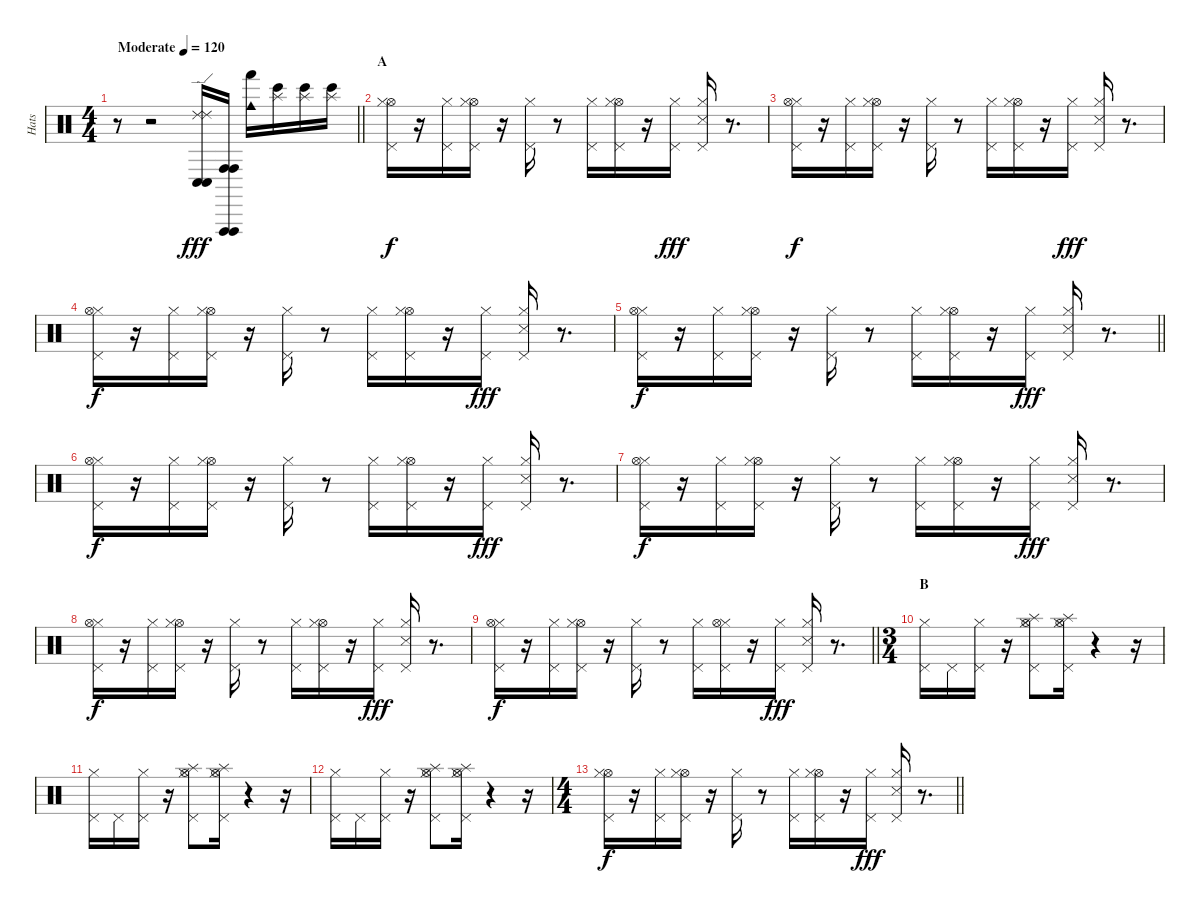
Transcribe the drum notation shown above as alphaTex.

\track ("Hats" "Hats") {solo instrument percussion}
\staff {score}
\articulation defaults
\ts (4 4)
\tempo (120 "Moderate")
\clef neutral
\barLineRight lightlight
\ks c
r.8{dy fff} r.2 ("Ride (edge) 2" "Conga low (hit)" "Ride (edge) 2" "Conga low (hit)").16 ("Conga high (hit)" "Vibraslap (hit)" "Conga high (hit)" "Vibraslap (hit)").16 ("Hand (hit)" "Cowbell medium (hit)").16 ("Splash (hit)" "Bongo High (hit)").16 ("Splash (hit)" "Bongo High (hit)").16 ("Bongo High (hit)" "Splash (hit)").16 |
\section ("" "A")
("Hi-Hat (open)" "Pedal Hi-Hat (hit)" "Hi-Hat (closed)").16{dy f} r.16 ("Hi-Hat (closed)" "Pedal Hi-Hat (hit)").16 ("Hi-Hat (open)" "Hi-Hat (closed)" "Pedal Hi-Hat (hit)").16 r.16 ("Pedal Hi-Hat (hit)" "Hi-Hat (closed)").16 r.8 ("Hi-Hat (closed)" "Pedal Hi-Hat (hit)").16 ("Hi-Hat (open)" "Pedal Hi-Hat (hit)" "Hi-Hat (closed)").16 r.16 ("Hi-Hat (closed)" "Pedal Hi-Hat (hit)").16{dy fff} ("Pedal Hi-Hat (hit)" "Hi-Hat (closed)" "Snare (side stick) 3").16 r.8{d} |
("Hi-Hat (closed)" "Pedal Hi-Hat (hit)" "Hi-Hat (open)").16{dy f} r.16 ("Hi-Hat (closed)" "Pedal Hi-Hat (hit)").16 ("Hi-Hat (open)" "Hi-Hat (closed)" "Pedal Hi-Hat (hit)").16 r.16 ("Pedal Hi-Hat (hit)" "Hi-Hat (closed)").16 r.8 ("Hi-Hat (closed)" "Pedal Hi-Hat (hit)").16 ("Hi-Hat (open)" "Pedal Hi-Hat (hit)" "Hi-Hat (closed)").16 r.16 ("Hi-Hat (closed)" "Pedal Hi-Hat (hit)").16{dy fff} ("Pedal Hi-Hat (hit)" "Hi-Hat (closed)" "Snare (side stick) 3").16 r.8{d} |
("Hi-Hat (closed)" "Pedal Hi-Hat (hit)" "Hi-Hat (open)").16{dy f} r.16 ("Hi-Hat (closed)" "Pedal Hi-Hat (hit)").16 ("Hi-Hat (open)" "Hi-Hat (closed)" "Pedal Hi-Hat (hit)").16 r.16 ("Pedal Hi-Hat (hit)" "Hi-Hat (closed)").16 r.8 ("Hi-Hat (closed)" "Pedal Hi-Hat (hit)").16 ("Hi-Hat (open)" "Pedal Hi-Hat (hit)" "Hi-Hat (closed)").16 r.16 ("Hi-Hat (closed)" "Pedal Hi-Hat (hit)").16{dy fff} ("Pedal Hi-Hat (hit)" "Hi-Hat (closed)" "Snare (side stick) 3").16 r.8{d} |
\barLineRight lightlight
("Hi-Hat (closed)" "Pedal Hi-Hat (hit)" "Hi-Hat (open)").16{dy f} r.16 ("Hi-Hat (closed)" "Pedal Hi-Hat (hit)").16 ("Hi-Hat (open)" "Hi-Hat (closed)" "Pedal Hi-Hat (hit)").16 r.16 ("Hi-Hat (closed)" "Pedal Hi-Hat (hit)").16 r.8 ("Hi-Hat (closed)" "Pedal Hi-Hat (hit)").16 ("Hi-Hat (open)" "Pedal Hi-Hat (hit)" "Hi-Hat (closed)").16 r.16 ("Hi-Hat (closed)" "Pedal Hi-Hat (hit)").16{dy fff} ("Pedal Hi-Hat (hit)" "Hi-Hat (closed)" "Snare (side stick) 3").16 r.8{d} |
("Hi-Hat (closed)" "Pedal Hi-Hat (hit)" "Hi-Hat (open)").16{dy f} r.16 ("Hi-Hat (closed)" "Pedal Hi-Hat (hit)").16 ("Hi-Hat (open)" "Hi-Hat (closed)" "Pedal Hi-Hat (hit)").16 r.16 ("Hi-Hat (closed)" "Pedal Hi-Hat (hit)").16 r.8 ("Hi-Hat (closed)" "Pedal Hi-Hat (hit)").16 ("Hi-Hat (open)" "Pedal Hi-Hat (hit)" "Hi-Hat (closed)").16 r.16 ("Hi-Hat (closed)" "Pedal Hi-Hat (hit)").16{dy fff} ("Pedal Hi-Hat (hit)" "Hi-Hat (closed)" "Snare (side stick) 3").16 r.8{d} |
("Hi-Hat (closed)" "Pedal Hi-Hat (hit)" "Hi-Hat (open)").16{dy f} r.16 ("Hi-Hat (closed)" "Pedal Hi-Hat (hit)").16 ("Hi-Hat (open)" "Hi-Hat (closed)" "Pedal Hi-Hat (hit)").16 r.16 ("Pedal Hi-Hat (hit)" "Hi-Hat (closed)").16 r.8 ("Hi-Hat (closed)" "Pedal Hi-Hat (hit)").16 ("Hi-Hat (open)" "Pedal Hi-Hat (hit)" "Hi-Hat (closed)").16 r.16 ("Hi-Hat (closed)" "Pedal Hi-Hat (hit)").16{dy fff} ("Pedal Hi-Hat (hit)" "Hi-Hat (closed)" "Snare (side stick) 3").16 r.8{d} |
("Hi-Hat (closed)" "Pedal Hi-Hat (hit)" "Hi-Hat (open)").16{dy f} r.16 ("Hi-Hat (closed)" "Pedal Hi-Hat (hit)").16 ("Hi-Hat (open)" "Hi-Hat (closed)" "Pedal Hi-Hat (hit)").16 r.16 ("Pedal Hi-Hat (hit)" "Hi-Hat (closed)").16 r.8 ("Hi-Hat (closed)" "Pedal Hi-Hat (hit)").16 ("Hi-Hat (open)" "Pedal Hi-Hat (hit)" "Hi-Hat (closed)").16 r.16 ("Hi-Hat (closed)" "Pedal Hi-Hat (hit)").16{dy fff} ("Pedal Hi-Hat (hit)" "Hi-Hat (closed)" "Snare (side stick) 3").16 r.8{d} |
\barLineRight lightlight
("Hi-Hat (closed)" "Pedal Hi-Hat (hit)" "Hi-Hat (open)").16{dy f} r.16 ("Hi-Hat (closed)" "Pedal Hi-Hat (hit)").16 ("Hi-Hat (open)" "Hi-Hat (closed)" "Pedal Hi-Hat (hit)").16 r.16 ("Hi-Hat (closed)" "Pedal Hi-Hat (hit)").16 r.8 ("Hi-Hat (closed)" "Pedal Hi-Hat (hit)").16 ("Hi-Hat (closed)" "Pedal Hi-Hat (hit)" "Hi-Hat (open)").16 r.16 ("Hi-Hat (closed)" "Pedal Hi-Hat (hit)").16{dy fff} ("Pedal Hi-Hat (hit)" "Hi-Hat (closed)" "Snare (side stick) 3").16 r.8{d} |
\ts (3 4)
\section ("" "B")
("Hi-Hat (closed)" "Pedal Hi-Hat (hit)").16 "Pedal Hi-Hat (hit)".16 ("Hi-Hat (closed)" "Pedal Hi-Hat (hit)").16 r.16 ("Hi-Hat (closed)" "Pedal Hi-Hat (hit)" "Splash (hit)" "Hi-Hat (open)").8 ("Pedal Hi-Hat (hit)" "Hi-Hat (closed)" "Splash (hit)" "Hi-Hat (open)").16 r.4 r.16 |
("Hi-Hat (closed)" "Pedal Hi-Hat (hit)").16 "Pedal Hi-Hat (hit)".16 ("Hi-Hat (closed)" "Pedal Hi-Hat (hit)").16 r.16 ("Hi-Hat (closed)" "Pedal Hi-Hat (hit)" "Splash (hit)" "Hi-Hat (open)").8 ("Hi-Hat (open)" "Splash (hit)" "Hi-Hat (closed)" "Pedal Hi-Hat (hit)").16 r.4 r.16 |
("Hi-Hat (closed)" "Pedal Hi-Hat (hit)").16 "Pedal Hi-Hat (hit)".16 ("Hi-Hat (closed)" "Pedal Hi-Hat (hit)").16 r.16 ("Hi-Hat (closed)" "Pedal Hi-Hat (hit)" "Splash (hit)" "Hi-Hat (open)").8 ("Pedal Hi-Hat (hit)" "Hi-Hat (closed)" "Splash (hit)" "Hi-Hat (open)").16 r.4 r.16 |
\ts (4 4)
\barLineRight lightlight
("Hi-Hat (open)" "Pedal Hi-Hat (hit)" "Hi-Hat (closed)").16{dy f} r.16 ("Pedal Hi-Hat (hit)" "Hi-Hat (closed)").16 ("Hi-Hat (open)" "Hi-Hat (closed)" "Pedal Hi-Hat (hit)").16 r.16 ("Pedal Hi-Hat (hit)" "Hi-Hat (closed)").16 r.8 ("Pedal Hi-Hat (hit)" "Hi-Hat (closed)").16 ("Hi-Hat (open)" "Pedal Hi-Hat (hit)" "Hi-Hat (closed)").16 r.16 ("Pedal Hi-Hat (hit)" "Hi-Hat (closed)").16{dy fff} ("Pedal Hi-Hat (hit)" "Hi-Hat (closed)" "Snare (side stick) 3").16 r.8{d}
